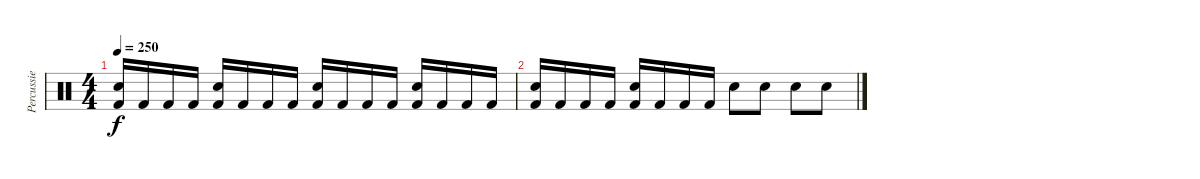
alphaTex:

\track ("Percussie" "Percussie") {instrument percussion}
\staff {score}
\articulation defaults
\ts (4 4)
\tempo 250
\clef neutral
\ks c
("Kick (hit) 2" "Snare (hit) 2").16{dy f} "Kick (hit) 2".16 "Kick (hit) 2".16 "Kick (hit) 2".16 ("Kick (hit) 2" "Snare (hit) 2").16 "Kick (hit) 2".16 "Kick (hit) 2".16 "Kick (hit) 2".16 ("Kick (hit) 2" "Snare (hit) 2").16 "Kick (hit) 2".16 "Kick (hit) 2".16 "Kick (hit) 2".16 ("Kick (hit) 2" "Snare (hit) 2").16 "Kick (hit) 2".16 "Kick (hit) 2".16 "Kick (hit) 2".16 |
("Kick (hit) 2" "Snare (hit) 2").16 "Kick (hit) 2".16 "Kick (hit) 2".16 "Kick (hit) 2".16 ("Kick (hit) 2" "Snare (hit) 2").16 "Kick (hit) 2".16 "Kick (hit) 2".16 "Kick (hit) 2".16 "Snare (hit) 2".8 "Snare (hit) 2".8 "Snare (hit) 2".8 "Snare (hit) 2".8
